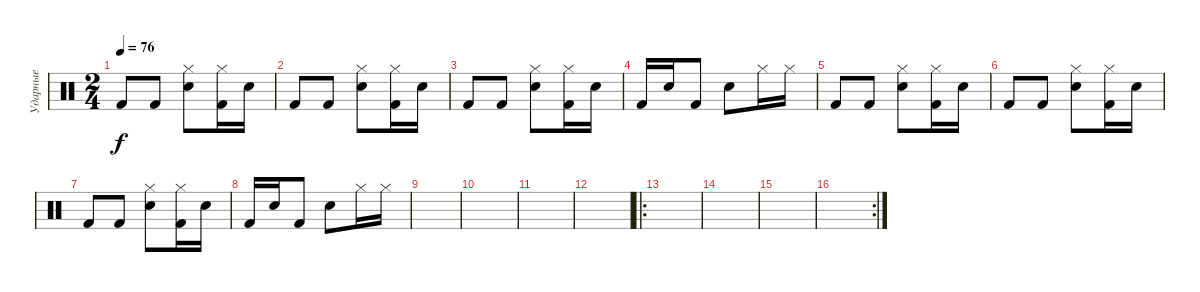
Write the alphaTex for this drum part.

\track ("Ударные" "Ударные") {instrument percussion}
\staff {score}
\articulation defaults
\ts (2 4)
\tempo 76
\clef neutral
\ks c "Kick (hit) 2".8{dy f} "Kick (hit) 2".8
("Electric Snare (hit)" "Hi-Hat (closed)").8 ("Kick (hit) 2" "Hi-Hat (closed)").16 "Electric Snare (hit)".16 |
"Kick (hit) 2".8 "Kick (hit) 2".8 ("Electric Snare (hit)" "Hi-Hat (closed)").8 ("Kick (hit) 2" "Hi-Hat (closed)").16 "Electric Snare (hit)".16 |
"Kick (hit) 2".8 "Kick (hit) 2".8 ("Electric Snare (hit)" "Hi-Hat (closed)").8 ("Kick (hit) 2" "Hi-Hat (closed)").16 "Electric Snare (hit)".16 |
"Kick (hit) 2".16 "Electric Snare (hit)".16 "Kick (hit) 2".8 "Electric Snare (hit)".8 "Hi-Hat (closed)".16 "Hi-Hat (closed)".16 |
"Kick (hit) 2".8 "Kick (hit) 2".8 ("Electric Snare (hit)" "Hi-Hat (closed)").8 ("Kick (hit) 2" "Hi-Hat (closed)").16 "Electric Snare (hit)".16 |
"Kick (hit) 2".8 "Kick (hit) 2".8 ("Electric Snare (hit)" "Hi-Hat (closed)").8 ("Kick (hit) 2" "Hi-Hat (closed)").16 "Electric Snare (hit)".16 |
"Kick (hit) 2".8 "Kick (hit) 2".8 ("Electric Snare (hit)" "Hi-Hat (closed)").8 ("Kick (hit) 2" "Hi-Hat (closed)").16 "Electric Snare (hit)".16 |
"Kick (hit) 2".16 "Electric Snare (hit)".16 "Kick (hit) 2".8 "Electric Snare (hit)".8 "Hi-Hat (closed)".16 "Hi-Hat (closed)".16 |
|
|
|
|
\ro
|
|
|
\rc 2
